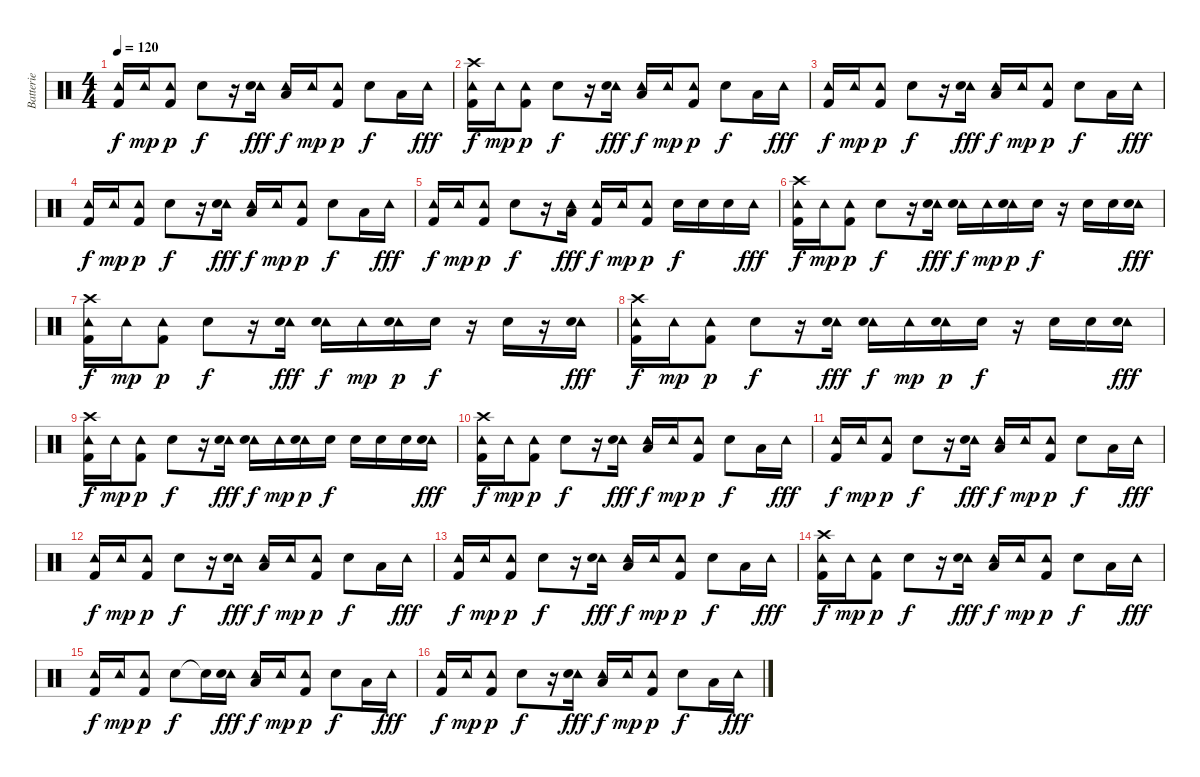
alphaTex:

\track ("Batterie" "Batterie") {instrument percussion}
\staff {score}
\articulation defaults
\ts (4 4)
\tempo 120
\clef neutral
\ks c
("Tambourine (hit)" "Kick (hit) 2").16{dy f} "Tambourine (hit)".16{dy mp} ("Tambourine (hit)" "Kick (hit) 2").8{dy p} "Electric Snare (hit)".8{dy f} r.16 ("Tambourine (hit)" "Electric Snare (hit)").16{dy fff} ("Tambourine (hit)" "Low Tom (hit)").16{dy f} "Tambourine (hit)".16{dy mp} ("Tambourine (hit)" "Kick (hit) 2").8{dy p} "Electric Snare (hit)".8{dy f} "Low Tom (hit)".16 "Tambourine (hit)".16{dy fff} |
("Tambourine (hit)" "Kick (hit) 2" "Crash high (hit)").16{dy f} "Tambourine (hit)".16{dy mp} ("Tambourine (hit)" "Kick (hit) 2").8{dy p} "Electric Snare (hit)".8{dy f} r.16 ("Tambourine (hit)" "Electric Snare (hit)").16{dy fff} ("Tambourine (hit)" "Low Tom (hit)").16{dy f} "Tambourine (hit)".16{dy mp} ("Tambourine (hit)" "Kick (hit) 2").8{dy p} "Electric Snare (hit)".8{dy f} "Low Tom (hit)".16 "Tambourine (hit)".16{dy fff} |
("Tambourine (hit)" "Kick (hit) 2").16{dy f} "Tambourine (hit)".16{dy mp} ("Tambourine (hit)" "Kick (hit) 2").8{dy p} "Electric Snare (hit)".8{dy f} r.16 ("Tambourine (hit)" "Electric Snare (hit)").16{dy fff} ("Tambourine (hit)" "Low Tom (hit)").16{dy f} "Tambourine (hit)".16{dy mp} ("Tambourine (hit)" "Kick (hit) 2").8{dy p} "Electric Snare (hit)".8{dy f} "Low Tom (hit)".16 "Tambourine (hit)".16{dy fff} |
("Tambourine (hit)" "Kick (hit) 2").16{dy f} "Tambourine (hit)".16{dy mp} ("Tambourine (hit)" "Kick (hit) 2").8{dy p} "Electric Snare (hit)".8{dy f} r.16 ("Tambourine (hit)" "Electric Snare (hit)").16{dy fff} ("Tambourine (hit)" "Low Tom (hit)").16{dy f} "Tambourine (hit)".16{dy mp} ("Tambourine (hit)" "Kick (hit) 2").8{dy p} "Electric Snare (hit)".8{dy f} "Low Tom (hit)".16 "Tambourine (hit)".16{dy fff} |
("Tambourine (hit)" "Kick (hit) 2").16{dy f} "Tambourine (hit)".16{dy mp} ("Tambourine (hit)" "Kick (hit) 2").8{dy p} "Electric Snare (hit)".8{dy f} r.16 ("Tambourine (hit)" "Low Tom (hit)").16{dy fff} ("Tambourine (hit)" "Kick (hit) 2").16{dy f} "Tambourine (hit)".16{dy mp} ("Tambourine (hit)" "Kick (hit) 2").8{dy p} "Electric Snare (hit)".16{dy f} "Electric Snare (hit)".16 "Electric Snare (hit)".16 "Tambourine (hit)".16{dy fff} |
("Tambourine (hit)" "Kick (hit) 2" "Crash high (hit)").16{dy f} "Tambourine (hit)".16{dy mp} ("Tambourine (hit)" "Kick (hit) 2").8{dy p} "Electric Snare (hit)".8{dy f} r.16 ("Tambourine (hit)" "Electric Snare (hit)").16{dy fff} ("Tambourine (hit)" "Electric Snare (hit)").16{dy f} "Tambourine (hit)".16{dy mp} ("Tambourine (hit)" "Electric Snare (hit)").16{dy p} "Electric Snare (hit)".16{dy f} r.16 "Electric Snare (hit)".16 "Electric Snare (hit)".16 ("Tambourine (hit)" "Electric Snare (hit)").16{dy fff} |
("Tambourine (hit)" "Kick (hit) 2" "Crash high (hit)").16{dy f} "Tambourine (hit)".16{dy mp} ("Tambourine (hit)" "Kick (hit) 2").8{dy p} "Electric Snare (hit)".8{dy f} r.16 ("Tambourine (hit)" "Electric Snare (hit)").16{dy fff} ("Tambourine (hit)" "Electric Snare (hit)").16{dy f} "Tambourine (hit)".16{dy mp} ("Tambourine (hit)" "Electric Snare (hit)").16{dy p} "Electric Snare (hit)".16{dy f} r.16 "Electric Snare (hit)".16 r.16 ("Tambourine (hit)" "Electric Snare (hit)").16{dy fff} |
("Tambourine (hit)" "Kick (hit) 2" "Crash high (hit)").16{dy f} "Tambourine (hit)".16{dy mp} ("Tambourine (hit)" "Kick (hit) 2").8{dy p} "Electric Snare (hit)".8{dy f} r.16 ("Tambourine (hit)" "Electric Snare (hit)").16{dy fff} ("Tambourine (hit)" "Electric Snare (hit)").16{dy f} "Tambourine (hit)".16{dy mp} ("Tambourine (hit)" "Electric Snare (hit)").16{dy p} "Electric Snare (hit)".16{dy f} r.16 "Electric Snare (hit)".16 "Electric Snare (hit)".16 ("Tambourine (hit)" "Electric Snare (hit)").16{dy fff} |
("Tambourine (hit)" "Kick (hit) 2" "Crash high (hit)").16{dy f} "Tambourine (hit)".16{dy mp} ("Tambourine (hit)" "Kick (hit) 2").8{dy p} "Electric Snare (hit)".8{dy f} r.16 ("Tambourine (hit)" "Electric Snare (hit)").16{dy fff} ("Tambourine (hit)" "Electric Snare (hit)").16{dy f} "Tambourine (hit)".16{dy mp} ("Tambourine (hit)" "Electric Snare (hit)").16{dy p} "Electric Snare (hit)".16{dy f} "Electric Snare (hit)".16 "Electric Snare (hit)".16 "Electric Snare (hit)".16 ("Tambourine (hit)" "Electric Snare (hit)").16{dy fff} |
("Tambourine (hit)" "Kick (hit) 2" "Crash high (hit)").16{dy f} "Tambourine (hit)".16{dy mp} ("Tambourine (hit)" "Kick (hit) 2").8{dy p} "Electric Snare (hit)".8{dy f} r.16 ("Tambourine (hit)" "Electric Snare (hit)").16{dy fff} ("Tambourine (hit)" "Low Tom (hit)").16{dy f} "Tambourine (hit)".16{dy mp} ("Tambourine (hit)" "Kick (hit) 2").8{dy p} "Electric Snare (hit)".8{dy f} "Low Tom (hit)".16 "Tambourine (hit)".16{dy fff} |
("Tambourine (hit)" "Kick (hit) 2").16{dy f} "Tambourine (hit)".16{dy mp} ("Tambourine (hit)" "Kick (hit) 2").8{dy p} "Electric Snare (hit)".8{dy f} r.16 ("Tambourine (hit)" "Electric Snare (hit)").16{dy fff} ("Tambourine (hit)" "Low Tom (hit)").16{dy f} "Tambourine (hit)".16{dy mp} ("Tambourine (hit)" "Kick (hit) 2").8{dy p} "Electric Snare (hit)".8{dy f} "Low Tom (hit)".16 "Tambourine (hit)".16{dy fff} |
("Tambourine (hit)" "Kick (hit) 2").16{dy f} "Tambourine (hit)".16{dy mp} ("Tambourine (hit)" "Kick (hit) 2").8{dy p} "Electric Snare (hit)".8{dy f} r.16 ("Tambourine (hit)" "Electric Snare (hit)").16{dy fff} ("Tambourine (hit)" "Low Tom (hit)").16{dy f} "Tambourine (hit)".16{dy mp} ("Tambourine (hit)" "Kick (hit) 2").8{dy p} "Electric Snare (hit)".8{dy f} "Low Tom (hit)".16 "Tambourine (hit)".16{dy fff} |
("Tambourine (hit)" "Kick (hit) 2").16{dy f} "Tambourine (hit)".16{dy mp} ("Tambourine (hit)" "Kick (hit) 2").8{dy p} "Electric Snare (hit)".8{dy f} r.16 ("Tambourine (hit)" "Electric Snare (hit)").16{dy fff} ("Tambourine (hit)" "Low Tom (hit)").16{dy f} "Tambourine (hit)".16{dy mp} ("Tambourine (hit)" "Kick (hit) 2").8{dy p} "Electric Snare (hit)".8{dy f} "Low Tom (hit)".16 "Tambourine (hit)".16{dy fff} |
("Tambourine (hit)" "Kick (hit) 2" "Crash high (hit)").16{dy f} "Tambourine (hit)".16{dy mp} ("Tambourine (hit)" "Kick (hit) 2").8{dy p} "Electric Snare (hit)".8{dy f} r.16 ("Tambourine (hit)" "Electric Snare (hit)").16{dy fff} ("Tambourine (hit)" "Low Tom (hit)").16{dy f} "Tambourine (hit)".16{dy mp} ("Tambourine (hit)" "Kick (hit) 2").8{dy p} "Electric Snare (hit)".8{dy f} "Low Tom (hit)".16 "Tambourine (hit)".16{dy fff} |
("Tambourine (hit)" "Kick (hit) 2").16{dy f} "Tambourine (hit)".16{dy mp} ("Tambourine (hit)" "Kick (hit) 2").8{dy p} "Electric Snare (hit)".8{dy f} "Snare (hit)"{t}.16 ("Tambourine (hit)" "Electric Snare (hit)").16{dy fff} ("Tambourine (hit)" "Low Tom (hit)").16{dy f} "Tambourine (hit)".16{dy mp} ("Tambourine (hit)" "Kick (hit) 2").8{dy p} "Electric Snare (hit)".8{dy f} "Low Tom (hit)".16 "Tambourine (hit)".16{dy fff} |
("Tambourine (hit)" "Kick (hit) 2").16{dy f} "Tambourine (hit)".16{dy mp} ("Tambourine (hit)" "Kick (hit) 2").8{dy p} "Electric Snare (hit)".8{dy f} r.16 ("Tambourine (hit)" "Electric Snare (hit)").16{dy fff} ("Tambourine (hit)" "Low Tom (hit)").16{dy f} "Tambourine (hit)".16{dy mp} ("Tambourine (hit)" "Kick (hit) 2").8{dy p} "Electric Snare (hit)".8{dy f} "Low Tom (hit)".16 "Tambourine (hit)".16{dy fff}
